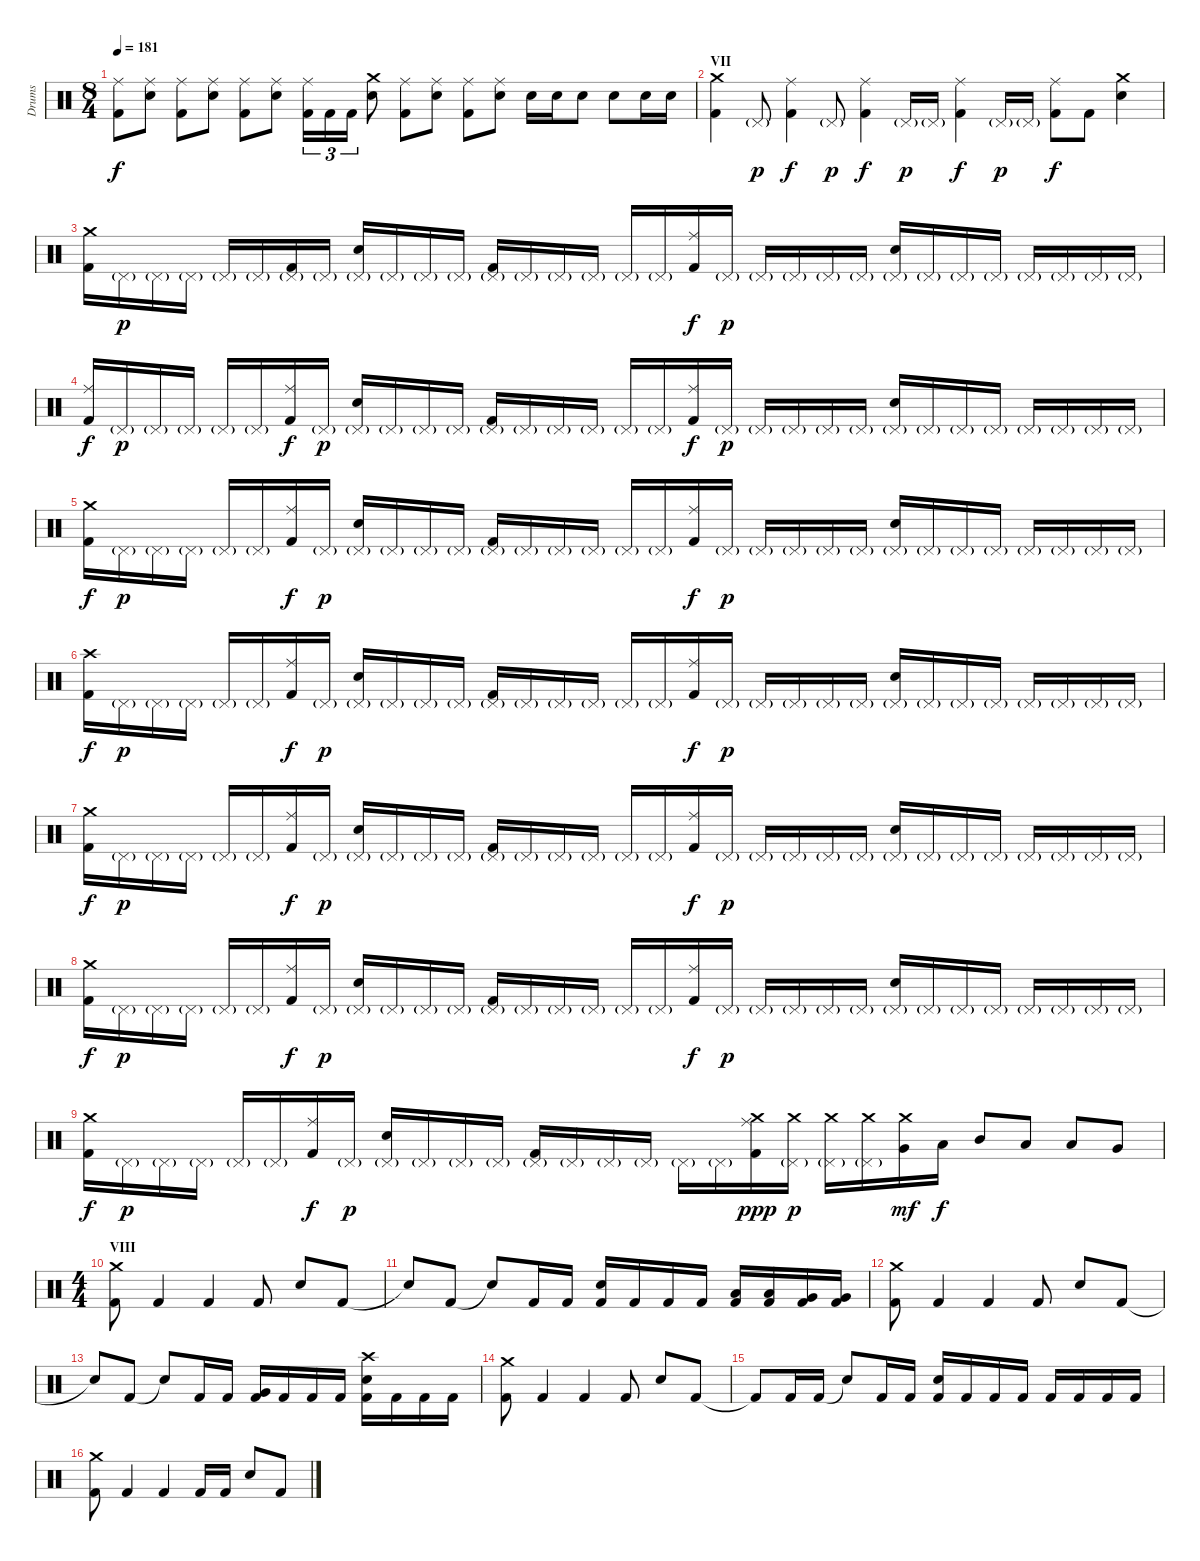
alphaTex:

\track ("Drums" "Drums") {instrument percussion}
\staff {score}
\articulation defaults
\ts (8 4)
\tempo 181
\clef neutral
\ks c
("Ride (middle)" "Kick (hit) 2").8{dy f} ("Ride (middle)" "Electric Snare (hit)").8 ("Ride (middle)" "Kick (hit) 2").8 ("Ride (middle)" "Electric Snare (hit)").8 ("Ride (middle)" "Kick (hit) 2").8 ("Ride (middle)" "Electric Snare (hit)").8 ("Ride (middle)" "Kick (hit) 2").16{tu (3 2)} "Kick (hit) 2".16{tu (3 2)} "Kick (hit) 2".16{tu (3 2)} ("Crash medium (hit)" "Electric Snare (hit)").8 ("Ride (middle)" "Kick (hit) 2").8 ("Ride (middle)" "Electric Snare (hit)").8 ("Ride (middle)" "Kick (hit) 2").8 ("Ride (middle)" "Electric Snare (hit)").8 "Electric Snare (hit)".16 "Electric Snare (hit)".16 "Electric Snare (hit)".8 "Electric Snare (hit)".8 "Electric Snare (hit)".16 "Electric Snare (hit)".16 |
\section ("" "VII")
("Crash medium (hit)" "Kick (hit) 2").4 "Pedal Hi-Hat (hit)"{g}.8{dy p} ("Ride (middle)" "Kick (hit) 2").4{dy f} "Pedal Hi-Hat (hit)"{g}.8{dy p} ("Ride (middle)" "Kick (hit) 2").4{dy f} "Pedal Hi-Hat (hit)"{g}.16{dy p} "Pedal Hi-Hat (hit)"{g}.16 ("Ride (middle)" "Kick (hit) 2").4{dy f} "Pedal Hi-Hat (hit)"{g}.16{dy p} "Pedal Hi-Hat (hit)"{g}.16 ("Ride (middle)" "Kick (hit) 2").8{dy f} "Kick (hit) 2".8 ("Crash medium (hit)" "Electric Snare (hit)").4 |
("Crash medium (hit)" "Kick (hit) 2").16 "Pedal Hi-Hat (hit)"{g}.16{dy p} "Pedal Hi-Hat (hit)"{g}.16 "Pedal Hi-Hat (hit)"{g}.16 "Pedal Hi-Hat (hit)"{g}.16 "Pedal Hi-Hat (hit)"{g}.16 ("Pedal Hi-Hat (hit)"{g} "Kick (hit) 2").16 "Pedal Hi-Hat (hit)"{g}.16 ("Pedal Hi-Hat (hit)"{g} "Electric Snare (hit)").16 "Pedal Hi-Hat (hit)"{g}.16 "Pedal Hi-Hat (hit)"{g}.16 "Pedal Hi-Hat (hit)"{g}.16 ("Pedal Hi-Hat (hit)"{g} "Kick (hit) 2").16 "Pedal Hi-Hat (hit)"{g}.16 "Pedal Hi-Hat (hit)"{g}.16 "Pedal Hi-Hat (hit)"{g}.16 "Pedal Hi-Hat (hit)"{g}.16 "Pedal Hi-Hat (hit)"{g}.16 ("Ride (middle)" "Kick (hit) 2").16{dy f} "Pedal Hi-Hat (hit)"{g}.16{dy p} "Pedal Hi-Hat (hit)"{g}.16 "Pedal Hi-Hat (hit)"{g}.16 "Pedal Hi-Hat (hit)"{g}.16 "Pedal Hi-Hat (hit)"{g}.16 ("Pedal Hi-Hat (hit)"{g} "Electric Snare (hit)").16 "Pedal Hi-Hat (hit)"{g}.16 "Pedal Hi-Hat (hit)"{g}.16 "Pedal Hi-Hat (hit)"{g}.16 "Pedal Hi-Hat (hit)"{g}.16 "Pedal Hi-Hat (hit)"{g}.16 "Pedal Hi-Hat (hit)"{g}.16 "Pedal Hi-Hat (hit)"{g}.16 |
("Ride (middle)" "Kick (hit) 2").16{dy f} "Pedal Hi-Hat (hit)"{g}.16{dy p} "Pedal Hi-Hat (hit)"{g}.16 "Pedal Hi-Hat (hit)"{g}.16 "Pedal Hi-Hat (hit)"{g}.16 "Pedal Hi-Hat (hit)"{g}.16 ("Ride (middle)" "Kick (hit) 2").16{dy f} "Pedal Hi-Hat (hit)"{g}.16{dy p} ("Pedal Hi-Hat (hit)"{g} "Electric Snare (hit)").16 "Pedal Hi-Hat (hit)"{g}.16 "Pedal Hi-Hat (hit)"{g}.16 "Pedal Hi-Hat (hit)"{g}.16 ("Pedal Hi-Hat (hit)"{g} "Kick (hit) 2").16 "Pedal Hi-Hat (hit)"{g}.16 "Pedal Hi-Hat (hit)"{g}.16 "Pedal Hi-Hat (hit)"{g}.16 "Pedal Hi-Hat (hit)"{g}.16 "Pedal Hi-Hat (hit)"{g}.16 ("Ride (middle)" "Kick (hit) 2").16{dy f} "Pedal Hi-Hat (hit)"{g}.16{dy p} "Pedal Hi-Hat (hit)"{g}.16 "Pedal Hi-Hat (hit)"{g}.16 "Pedal Hi-Hat (hit)"{g}.16 "Pedal Hi-Hat (hit)"{g}.16 ("Pedal Hi-Hat (hit)"{g} "Electric Snare (hit)").16 "Pedal Hi-Hat (hit)"{g}.16 "Pedal Hi-Hat (hit)"{g}.16 "Pedal Hi-Hat (hit)"{g}.16 "Pedal Hi-Hat (hit)"{g}.16 "Pedal Hi-Hat (hit)"{g}.16 "Pedal Hi-Hat (hit)"{g}.16 "Pedal Hi-Hat (hit)"{g}.16 |
("Crash medium (hit)" "Kick (hit) 2").16{dy f} "Pedal Hi-Hat (hit)"{g}.16{dy p} "Pedal Hi-Hat (hit)"{g}.16 "Pedal Hi-Hat (hit)"{g}.16 "Pedal Hi-Hat (hit)"{g}.16 "Pedal Hi-Hat (hit)"{g}.16 ("Ride (middle)" "Kick (hit) 2").16{dy f} "Pedal Hi-Hat (hit)"{g}.16{dy p} ("Pedal Hi-Hat (hit)"{g} "Electric Snare (hit)").16 "Pedal Hi-Hat (hit)"{g}.16 "Pedal Hi-Hat (hit)"{g}.16 "Pedal Hi-Hat (hit)"{g}.16 ("Pedal Hi-Hat (hit)"{g} "Kick (hit) 2").16 "Pedal Hi-Hat (hit)"{g}.16 "Pedal Hi-Hat (hit)"{g}.16 "Pedal Hi-Hat (hit)"{g}.16 "Pedal Hi-Hat (hit)"{g}.16 "Pedal Hi-Hat (hit)"{g}.16 ("Ride (middle)" "Kick (hit) 2").16{dy f} "Pedal Hi-Hat (hit)"{g}.16{dy p} "Pedal Hi-Hat (hit)"{g}.16 "Pedal Hi-Hat (hit)"{g}.16 "Pedal Hi-Hat (hit)"{g}.16 "Pedal Hi-Hat (hit)"{g}.16 ("Pedal Hi-Hat (hit)"{g} "Electric Snare (hit)").16 "Pedal Hi-Hat (hit)"{g}.16 "Pedal Hi-Hat (hit)"{g}.16 "Pedal Hi-Hat (hit)"{g}.16 "Pedal Hi-Hat (hit)"{g}.16 "Pedal Hi-Hat (hit)"{g}.16 "Pedal Hi-Hat (hit)"{g}.16 "Pedal Hi-Hat (hit)"{g}.16 |
("Crash high (hit)" "Kick (hit) 2").16{dy f} "Pedal Hi-Hat (hit)"{g}.16{dy p} "Pedal Hi-Hat (hit)"{g}.16 "Pedal Hi-Hat (hit)"{g}.16 "Pedal Hi-Hat (hit)"{g}.16 "Pedal Hi-Hat (hit)"{g}.16 ("Ride (middle)" "Kick (hit) 2").16{dy f} "Pedal Hi-Hat (hit)"{g}.16{dy p} ("Pedal Hi-Hat (hit)"{g} "Electric Snare (hit)").16 "Pedal Hi-Hat (hit)"{g}.16 "Pedal Hi-Hat (hit)"{g}.16 "Pedal Hi-Hat (hit)"{g}.16 ("Pedal Hi-Hat (hit)"{g} "Kick (hit) 2").16 "Pedal Hi-Hat (hit)"{g}.16 "Pedal Hi-Hat (hit)"{g}.16 "Pedal Hi-Hat (hit)"{g}.16 "Pedal Hi-Hat (hit)"{g}.16 "Pedal Hi-Hat (hit)"{g}.16 ("Ride (middle)" "Kick (hit) 2").16{dy f} "Pedal Hi-Hat (hit)"{g}.16{dy p} "Pedal Hi-Hat (hit)"{g}.16 "Pedal Hi-Hat (hit)"{g}.16 "Pedal Hi-Hat (hit)"{g}.16 "Pedal Hi-Hat (hit)"{g}.16 ("Pedal Hi-Hat (hit)"{g} "Electric Snare (hit)").16 "Pedal Hi-Hat (hit)"{g}.16 "Pedal Hi-Hat (hit)"{g}.16 "Pedal Hi-Hat (hit)"{g}.16 "Pedal Hi-Hat (hit)"{g}.16 "Pedal Hi-Hat (hit)"{g}.16 "Pedal Hi-Hat (hit)"{g}.16 "Pedal Hi-Hat (hit)"{g}.16 |
("Crash medium (hit)" "Kick (hit) 2").16{dy f} "Pedal Hi-Hat (hit)"{g}.16{dy p} "Pedal Hi-Hat (hit)"{g}.16 "Pedal Hi-Hat (hit)"{g}.16 "Pedal Hi-Hat (hit)"{g}.16 "Pedal Hi-Hat (hit)"{g}.16 ("Ride (middle)" "Kick (hit) 2").16{dy f} "Pedal Hi-Hat (hit)"{g}.16{dy p} ("Pedal Hi-Hat (hit)"{g} "Electric Snare (hit)").16 "Pedal Hi-Hat (hit)"{g}.16 "Pedal Hi-Hat (hit)"{g}.16 "Pedal Hi-Hat (hit)"{g}.16 ("Pedal Hi-Hat (hit)"{g} "Kick (hit) 2").16 "Pedal Hi-Hat (hit)"{g}.16 "Pedal Hi-Hat (hit)"{g}.16 "Pedal Hi-Hat (hit)"{g}.16 "Pedal Hi-Hat (hit)"{g}.16 "Pedal Hi-Hat (hit)"{g}.16 ("Ride (middle)" "Kick (hit) 2").16{dy f} "Pedal Hi-Hat (hit)"{g}.16{dy p} "Pedal Hi-Hat (hit)"{g}.16 "Pedal Hi-Hat (hit)"{g}.16 "Pedal Hi-Hat (hit)"{g}.16 "Pedal Hi-Hat (hit)"{g}.16 ("Pedal Hi-Hat (hit)"{g} "Electric Snare (hit)").16 "Pedal Hi-Hat (hit)"{g}.16 "Pedal Hi-Hat (hit)"{g}.16 "Pedal Hi-Hat (hit)"{g}.16 "Pedal Hi-Hat (hit)"{g}.16 "Pedal Hi-Hat (hit)"{g}.16 "Pedal Hi-Hat (hit)"{g}.16 "Pedal Hi-Hat (hit)"{g}.16 |
("Crash medium (hit)" "Kick (hit) 2").16{dy f} "Pedal Hi-Hat (hit)"{g}.16{dy p} "Pedal Hi-Hat (hit)"{g}.16 "Pedal Hi-Hat (hit)"{g}.16 "Pedal Hi-Hat (hit)"{g}.16 "Pedal Hi-Hat (hit)"{g}.16 ("Ride (middle)" "Kick (hit) 2").16{dy f} "Pedal Hi-Hat (hit)"{g}.16{dy p} ("Pedal Hi-Hat (hit)"{g} "Electric Snare (hit)").16 "Pedal Hi-Hat (hit)"{g}.16 "Pedal Hi-Hat (hit)"{g}.16 "Pedal Hi-Hat (hit)"{g}.16 ("Pedal Hi-Hat (hit)"{g} "Kick (hit) 2").16 "Pedal Hi-Hat (hit)"{g}.16 "Pedal Hi-Hat (hit)"{g}.16 "Pedal Hi-Hat (hit)"{g}.16 "Pedal Hi-Hat (hit)"{g}.16 "Pedal Hi-Hat (hit)"{g}.16 ("Ride (middle)" "Kick (hit) 2").16{dy f} "Pedal Hi-Hat (hit)"{g}.16{dy p} "Pedal Hi-Hat (hit)"{g}.16 "Pedal Hi-Hat (hit)"{g}.16 "Pedal Hi-Hat (hit)"{g}.16 "Pedal Hi-Hat (hit)"{g}.16 ("Pedal Hi-Hat (hit)"{g} "Electric Snare (hit)").16 "Pedal Hi-Hat (hit)"{g}.16 "Pedal Hi-Hat (hit)"{g}.16 "Pedal Hi-Hat (hit)"{g}.16 "Pedal Hi-Hat (hit)"{g}.16 "Pedal Hi-Hat (hit)"{g}.16 "Pedal Hi-Hat (hit)"{g}.16 "Pedal Hi-Hat (hit)"{g}.16 |
("Crash medium (hit)" "Kick (hit) 2").16{dy f} "Pedal Hi-Hat (hit)"{g}.16{dy p} "Pedal Hi-Hat (hit)"{g}.16 "Pedal Hi-Hat (hit)"{g}.16 "Pedal Hi-Hat (hit)"{g}.16 "Pedal Hi-Hat (hit)"{g}.16 ("Ride (middle)" "Kick (hit) 2").16{dy f} "Pedal Hi-Hat (hit)"{g}.16{dy p} ("Pedal Hi-Hat (hit)"{g} "Electric Snare (hit)").16 "Pedal Hi-Hat (hit)"{g}.16 "Pedal Hi-Hat (hit)"{g}.16 "Pedal Hi-Hat (hit)"{g}.16 ("Pedal Hi-Hat (hit)"{g} "Kick (hit) 2").16 "Pedal Hi-Hat (hit)"{g}.16 "Pedal Hi-Hat (hit)"{g}.16 "Pedal Hi-Hat (hit)"{g}.16 "Pedal Hi-Hat (hit)"{g}.16 "Pedal Hi-Hat (hit)"{g}.16 ("Crash medium (hit)" "Ride (middle)" "Kick (hit) 2").16{dy ppp} ("Crash medium (hit)" "Pedal Hi-Hat (hit)"{g}).16{dy p} ("Crash medium (hit)" "Pedal Hi-Hat (hit)"{g}).16 ("Crash medium (hit)" "Pedal Hi-Hat (hit)"{g}).16 ("Crash medium (hit)" "Very Low Tom (hit)").16{dy mf} "Low Tom (hit)".16{dy f} "Mid Tom (hit)".8 "Low Tom (hit)".8 "Low Tom (hit)".8 "Very Low Tom (hit)".8 |
\ts (4 4)
\section ("" "VIII")
("Crash medium (hit)" "Kick (hit) 2").8 "Kick (hit) 2".4 "Kick (hit) 2".4 "Kick (hit) 2".8 "Electric Snare (hit)".8 "Kick (hit) 2".8 |
"Snare (hit)"{t}.8 "Kick (hit) 2".8 "Snare (hit)"{t}.8 "Kick (hit) 2".16 "Kick (hit) 2".16 ("Electric Snare (hit)" "Kick (hit) 2").16 "Kick (hit) 2".16 "Kick (hit) 2".16 "Kick (hit) 2".16 ("Low Tom (hit)" "Kick (hit) 2").16 ("Low Tom (hit)" "Kick (hit) 2").16 ("Very Low Tom (hit)" "Kick (hit) 2").16 ("Very Low Tom (hit)" "Kick (hit) 2").16 |
("Crash medium (hit)" "Kick (hit) 2").8 "Kick (hit) 2".4 "Kick (hit) 2".4 "Kick (hit) 2".8 "Electric Snare (hit)".8 "Kick (hit) 2".8 |
"Snare (hit)"{t}.8 "Kick (hit) 2".8 "Snare (hit)"{t}.8 "Kick (hit) 2".16 "Kick (hit) 2".16 ("Very Low Tom (hit)" "Kick (hit) 2").16 "Kick (hit) 2".16 "Kick (hit) 2".16 "Kick (hit) 2".16 ("Crash high (hit)" "Electric Snare (hit)" "Kick (hit) 2").16 "Kick (hit) 2".16 "Kick (hit) 2".16 "Kick (hit) 2".16 |
("Crash medium (hit)" "Kick (hit) 2").8 "Kick (hit) 2".4 "Kick (hit) 2".4 "Kick (hit) 2".8 "Electric Snare (hit)".8 "Kick (hit) 2".8 |
"Kick (hit) 2"{t}.8 "Kick (hit) 2".16 "Kick (hit) 2".16 "Snare (hit)"{t}.8 "Kick (hit) 2".16 "Kick (hit) 2".16 ("Electric Snare (hit)" "Kick (hit) 2").16 "Kick (hit) 2".16 "Kick (hit) 2".16 "Kick (hit) 2".16 "Kick (hit) 2".16 "Kick (hit) 2".16 "Kick (hit) 2".16 "Kick (hit) 2".16 |
("Crash medium (hit)" "Kick (hit) 2").8 "Kick (hit) 2".4 "Kick (hit) 2".4 "Kick (hit) 2".16 "Kick (hit) 2".16 "Electric Snare (hit)".8 "Kick (hit) 2".8
